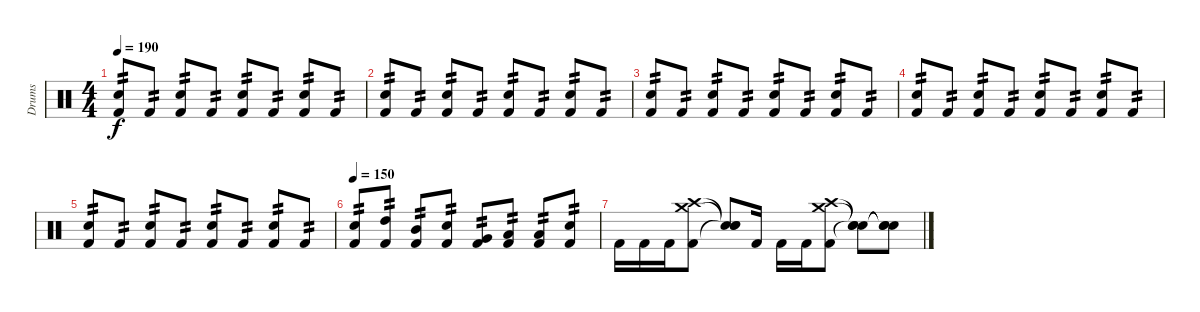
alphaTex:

\track ("Drums" "Drums") {instrument percussion}
\staff {score}
\articulation defaults
\ts (4 4)
\tempo 190
\clef neutral
\ks c
("Snare (hit) 2" "Kick (hit) 2").8{tp 2 dy f} "Kick (hit) 2".8{tp 2} ("Snare (hit) 2" "Kick (hit) 2").8{tp 2} "Kick (hit) 2".8{tp 2} ("Snare (hit) 2" "Kick (hit) 2").8{tp 2} "Kick (hit) 2".8{tp 2} ("Snare (hit) 2" "Kick (hit) 2").8{tp 2} "Kick (hit) 2".8{tp 2} |
("Snare (hit) 2" "Kick (hit) 2").8{tp 2} "Kick (hit) 2".8{tp 2} ("Snare (hit) 2" "Kick (hit) 2").8{tp 2} "Kick (hit) 2".8{tp 2} ("Snare (hit) 2" "Kick (hit) 2").8{tp 2} "Kick (hit) 2".8{tp 2} ("Snare (hit) 2" "Kick (hit) 2").8{tp 2} "Kick (hit) 2".8{tp 2} |
("Snare (hit) 2" "Kick (hit) 2").8{tp 2} "Kick (hit) 2".8{tp 2} ("Snare (hit) 2" "Kick (hit) 2").8{tp 2} "Kick (hit) 2".8{tp 2} ("Snare (hit) 2" "Kick (hit) 2").8{tp 2} "Kick (hit) 2".8{tp 2} ("Snare (hit) 2" "Kick (hit) 2").8{tp 2} "Kick (hit) 2".8{tp 2} |
("Snare (hit) 2" "Kick (hit) 2").8{tp 2} "Kick (hit) 2".8{tp 2} ("Snare (hit) 2" "Kick (hit) 2").8{tp 2} "Kick (hit) 2".8{tp 2} ("Snare (hit) 2" "Kick (hit) 2").8{tp 2} "Kick (hit) 2".8{tp 2} ("Snare (hit) 2" "Kick (hit) 2").8{tp 2} "Kick (hit) 2".8{tp 2} |
("Snare (hit) 2" "Kick (hit) 2").8{tp 2} "Kick (hit) 2".8{tp 2} ("Snare (hit) 2" "Kick (hit) 2").8{tp 2} "Kick (hit) 2".8{tp 2} ("Snare (hit) 2" "Kick (hit) 2").8{tp 2} "Kick (hit) 2".8{tp 2} ("Snare (hit) 2" "Kick (hit) 2").8{tp 2} "Kick (hit) 2".8{tp 2} |
\tempo 150
("Snare (hit) 2" "Kick (hit) 2").8{tp 2} ("High Tom (hit)" "Kick (hit) 2").8{tp 2} ("Mid Tom (hit)" "Kick (hit) 2").8{tp 2} ("Snare (hit) 2" "Kick (hit) 2").8{tp 2} ("Very Low Tom (hit)" "Kick (hit) 2").8{tp 2} ("Low Floor Tom (hit)" "Kick (hit) 2").8{tp 2} ("Low Floor Tom (hit)" "Kick (hit) 2").8{tp 2} ("Snare (hit) 2" "Kick (hit) 2").8{tp 2} |
"Kick (hit) 2".16 "Kick (hit) 2".16 "Kick (hit) 2".16 ("Crash medium (hit)" "Crash high (hit)" "Kick (hit) 2").8 ("Snare (hit)"{t} "Snare (hit)"{t} "Snare (hit)"{t}).8 "Kick (hit) 2".16 "Kick (hit) 2".16 "Kick (hit) 2".16 ("Crash medium (hit)" "Crash high (hit)" "Kick (hit) 2").8 ("Snare (hit)"{t} "Snare (hit)"{t} "Snare (hit)"{t}).8 ("Snare (hit)"{t} "Snare (hit)"{t} "Snare (hit)"{t}).8
